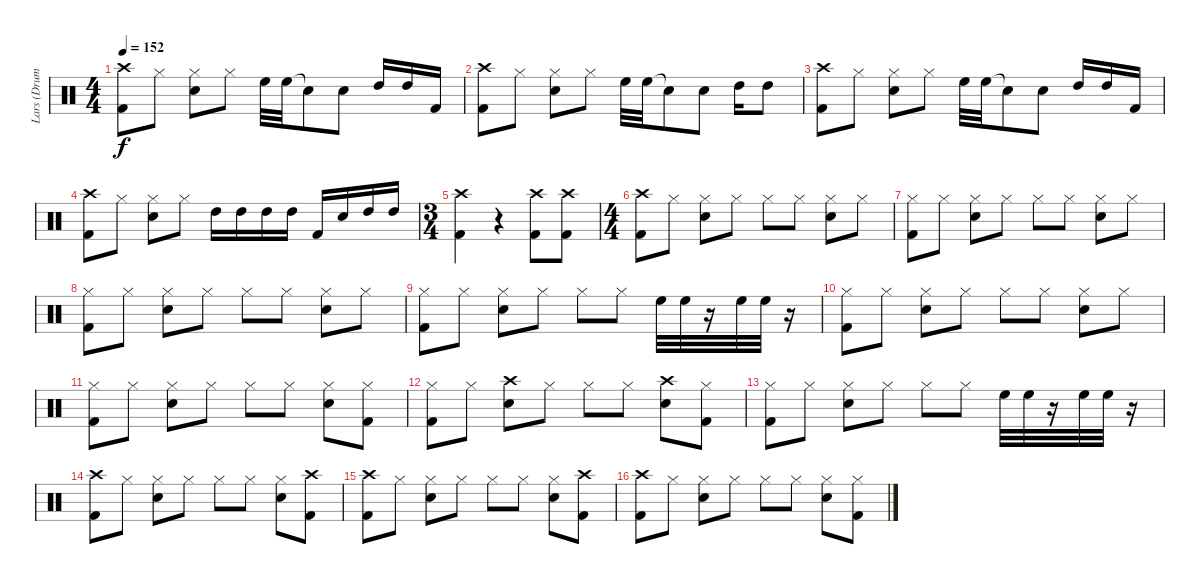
\track ("Lars (Drums)" "Lars (Drum") {instrument percussion}
\staff {score}
\articulation defaults
\ts (4 4)
\tempo 152
\clef neutral
\ks c
("Crash high (hit)" "Kick (hit) 2").8{dy f} "Hi-Hat (closed)".8 ("Hi-Hat (closed)" "Snare (hit) 2").8 "Hi-Hat (closed)".8 "High Floor Tom (hit)".32 "High Floor Tom (hit)".32 "Snare (hit)"{t}.8 "Snare (hit) 2".8 "High Tom (hit)".16 "High Tom (hit)".16 "Kick (hit) 2".16 |
("Crash high (hit)" "Kick (hit) 2").8 "Hi-Hat (closed)".8 ("Hi-Hat (closed)" "Snare (hit) 2").8 "Hi-Hat (closed)".8 "High Floor Tom (hit)".32 "High Floor Tom (hit)".32 "Snare (hit)"{t}.8 "Snare (hit) 2".8 "High Tom (hit)".16 "High Tom (hit)".8 |
("Crash high (hit)" "Kick (hit) 2").8 "Hi-Hat (closed)".8 ("Hi-Hat (closed)" "Snare (hit) 2").8 "Hi-Hat (closed)".8 "High Floor Tom (hit)".32 "High Floor Tom (hit)".32 "Snare (hit)"{t}.8 "Snare (hit) 2".8 "High Tom (hit)".16 "High Tom (hit)".16 "Kick (hit) 2".16 |
("Crash high (hit)" "Kick (hit) 2").8 "Hi-Hat (closed)".8 ("Hi-Hat (closed)" "Snare (hit) 2").8 "Hi-Hat (closed)".8 "High Tom (hit)".16 "High Tom (hit)".16 "High Tom (hit)".16 "High Tom (hit)".16 "Kick (hit) 2".16 "Snare (hit) 2".16 "High Tom (hit)".16 "High Tom (hit)".16 |
\ts (3 4)
("Crash high (hit)" "Kick (hit) 2").4 r.4 ("Crash high (hit)" "Kick (hit) 2").8 ("Crash high (hit)" "Kick (hit) 2").8 |
\ts (4 4)
("Crash high (hit)" "Kick (hit) 2").8 "Hi-Hat (closed)".8 ("Hi-Hat (closed)" "Snare (hit) 2").8 "Hi-Hat (closed)".8 "Hi-Hat (closed)".8 "Hi-Hat (closed)".8 ("Hi-Hat (closed)" "Snare (hit) 2").8 "Hi-Hat (closed)".8 |
("Hi-Hat (closed)" "Kick (hit) 2").8 "Hi-Hat (closed)".8 ("Hi-Hat (closed)" "Snare (hit) 2").8 "Hi-Hat (closed)".8 "Hi-Hat (closed)".8 "Hi-Hat (closed)".8 ("Hi-Hat (closed)" "Snare (hit) 2").8 "Hi-Hat (closed)".8 |
("Hi-Hat (closed)" "Kick (hit) 2").8 "Hi-Hat (closed)".8 ("Hi-Hat (closed)" "Snare (hit) 2").8 "Hi-Hat (closed)".8 "Hi-Hat (closed)".8 "Hi-Hat (closed)".8 ("Hi-Hat (closed)" "Snare (hit) 2").8 "Hi-Hat (closed)".8 |
("Hi-Hat (closed)" "Kick (hit) 2").8 "Hi-Hat (closed)".8 ("Hi-Hat (closed)" "Snare (hit) 2").8 "Hi-Hat (closed)".8 "Hi-Hat (closed)".8 "Hi-Hat (closed)".8 "High Floor Tom (hit)".32 "High Floor Tom (hit)".32 r.16 "High Floor Tom (hit)".32 "High Floor Tom (hit)".32 r.16 |
("Hi-Hat (closed)" "Kick (hit) 2").8 "Hi-Hat (closed)".8 ("Hi-Hat (closed)" "Snare (hit) 2").8 "Hi-Hat (closed)".8 "Hi-Hat (closed)".8 "Hi-Hat (closed)".8 ("Hi-Hat (closed)" "Snare (hit) 2").8 "Hi-Hat (closed)".8 |
("Hi-Hat (closed)" "Kick (hit) 2").8 "Hi-Hat (closed)".8 ("Hi-Hat (closed)" "Snare (hit) 2").8 "Hi-Hat (closed)".8 "Hi-Hat (closed)".8 "Hi-Hat (closed)".8 ("Hi-Hat (closed)" "Snare (hit) 2").8 ("Hi-Hat (closed)" "Kick (hit) 2").8 |
("Hi-Hat (closed)" "Kick (hit) 2").8 "Hi-Hat (closed)".8 ("Crash high (hit)" "Snare (hit) 2").8 "Hi-Hat (closed)".8 "Hi-Hat (closed)".8 "Hi-Hat (closed)".8 ("Crash high (hit)" "Snare (hit) 2").8 ("Hi-Hat (closed)" "Kick (hit) 2").8 |
("Hi-Hat (closed)" "Kick (hit) 2").8 "Hi-Hat (closed)".8 ("Hi-Hat (closed)" "Snare (hit) 2").8 "Hi-Hat (closed)".8 "Hi-Hat (closed)".8 "Hi-Hat (closed)".8 "High Floor Tom (hit)".32 "High Floor Tom (hit)".32 r.16 "High Floor Tom (hit)".32 "High Floor Tom (hit)".32 r.16 |
("Crash high (hit)" "Kick (hit) 2").8 "Hi-Hat (closed)".8 ("Hi-Hat (closed)" "Snare (hit) 2").8 "Hi-Hat (closed)".8 "Hi-Hat (closed)".8 "Hi-Hat (closed)".8 ("Hi-Hat (closed)" "Snare (hit) 2").8 ("Crash high (hit)" "Kick (hit) 2").8 |
("Crash high (hit)" "Kick (hit) 2").8 "Hi-Hat (closed)".8 ("Hi-Hat (closed)" "Snare (hit) 2").8 "Hi-Hat (closed)".8 "Hi-Hat (closed)".8 "Hi-Hat (closed)".8 ("Hi-Hat (closed)" "Snare (hit) 2").8 ("Crash high (hit)" "Kick (hit) 2").8 |
("Crash high (hit)" "Kick (hit) 2").8 "Hi-Hat (closed)".8 ("Hi-Hat (closed)" "Snare (hit) 2").8 "Hi-Hat (closed)".8 "Hi-Hat (closed)".8 "Hi-Hat (closed)".8 ("Hi-Hat (closed)" "Snare (hit) 2").8 ("Hi-Hat (closed)" "Kick (hit) 2").8
